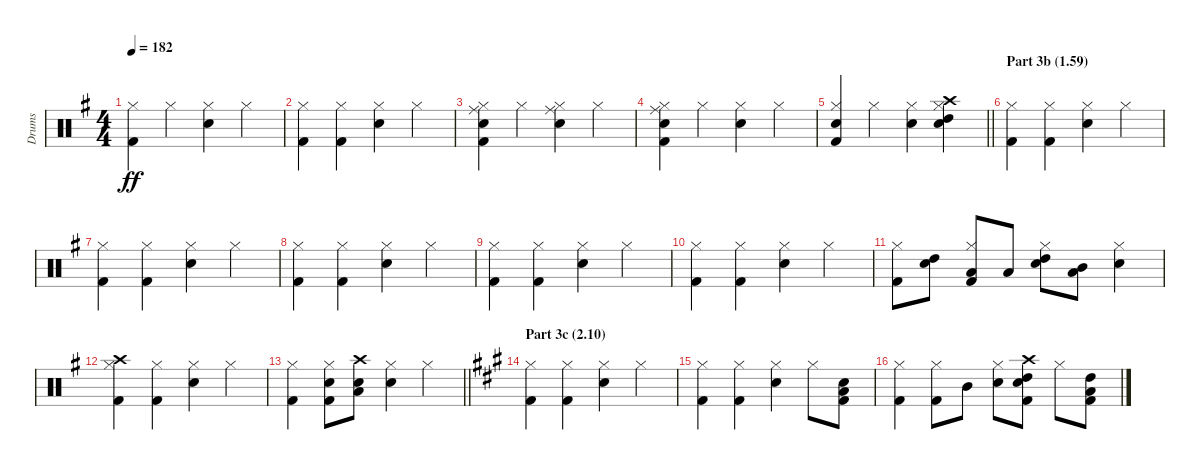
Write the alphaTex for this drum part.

\track ("Drums" "Drums") {instrument percussion}
\staff {score}
\articulation defaults
\ts (4 4)
\tempo 182
\clef neutral
\ks g
("Kick (hit) 2" "Hi-Hat (closed)").4{dy ff} "Hi-Hat (closed)".4 ("Electric Snare (hit)" "Hi-Hat (closed)").4 "Hi-Hat (closed)".4 |
("Kick (hit) 2" "Hi-Hat (closed)").4 ("Kick (hit) 2" "Hi-Hat (closed)").4 ("Electric Snare (hit)" "Hi-Hat (closed)").4 "Hi-Hat (closed)".4 |
("Ride (middle)" "Kick (hit) 2" "Electric Snare (hit)" "Hi-Hat (closed)").4 "Hi-Hat (closed)".4 ("Ride (middle)" "Electric Snare (hit)" "Hi-Hat (closed)").4 "Hi-Hat (closed)".4 |
("Ride (middle)" "Electric Snare (hit)" "Kick (hit) 2" "Hi-Hat (closed)").4 "Hi-Hat (closed)".4 ("Electric Snare (hit)" "Hi-Hat (closed)").4 "Hi-Hat (closed)".4 |
\barLineRight lightlight
("Electric Snare (hit)" "Kick (hit) 2" "Hi-Hat (closed)").4 "Hi-Hat (closed)".4 ("Electric Snare (hit)" "Hi-Hat (closed)").4 ("High Tom (hit)" "Hi-Hat (closed)" "Crash high (hit)" "Electric Snare (hit)").4 |
\section ("" "Part 3b (1.59)")
("Hi-Hat (closed)" "Kick (hit) 2").4 ("Hi-Hat (closed)" "Kick (hit) 2").4 ("Electric Snare (hit)" "Hi-Hat (closed)").4 "Hi-Hat (closed)".4 |
("Kick (hit) 2" "Hi-Hat (closed)").4 ("Kick (hit) 2" "Hi-Hat (closed)").4 ("Electric Snare (hit)" "Hi-Hat (closed)").4 "Hi-Hat (closed)".4 |
("Hi-Hat (closed)" "Kick (hit) 2").4 ("Hi-Hat (closed)" "Kick (hit) 2").4 ("Hi-Hat (closed)" "Electric Snare (hit)").4 "Hi-Hat (closed)".4 |
("Hi-Hat (closed)" "Kick (hit) 2").4 ("Hi-Hat (closed)" "Kick (hit) 2").4 ("Hi-Hat (closed)" "Electric Snare (hit)").4 "Hi-Hat (closed)".4 |
("Hi-Hat (closed)" "Kick (hit) 2").4 ("Hi-Hat (closed)" "Kick (hit) 2").4 ("Electric Snare (hit)" "Hi-Hat (closed)").4 "Hi-Hat (closed)".4 |
("Kick (hit) 2" "Hi-Hat (closed)").8 ("High Tom (hit)" "Electric Snare (hit)").8 ("Low Tom (hit)" "Kick (hit) 2" "Hi-Hat (closed)").8 "Low Tom (hit)".8 ("High Tom (hit)" "Electric Snare (hit)" "Hi-Hat (closed)").8 ("Mid Tom (hit)" "Low Tom (hit)").8 ("Electric Snare (hit)" "Hi-Hat (closed)").4 |
("Crash high (hit)" "Hi-Hat (closed)" "Kick (hit) 2").4 ("Hi-Hat (closed)" "Kick (hit) 2").4 ("Hi-Hat (closed)" "Electric Snare (hit)").4 "Hi-Hat (closed)".4 |
\barLineRight lightlight
("Hi-Hat (closed)" "Kick (hit) 2").4 ("Electric Snare (hit)" "Hi-Hat (closed)" "Kick (hit) 2").8 ("Low Tom (hit)" "Snare (hit) 2" "Crash high (hit)").8 ("Hi-Hat (closed)" "Electric Snare (hit)").4 "Hi-Hat (closed)".4 |
\section ("" "Part 3c (2.10)")
\ks a
("Hi-Hat (closed)" "Kick (hit) 2").4 ("Hi-Hat (closed)" "Kick (hit) 2").4 ("Electric Snare (hit)" "Hi-Hat (closed)").4 "Hi-Hat (closed)".4 |
("Kick (hit) 2" "Hi-Hat (closed)").4 ("Kick (hit) 2" "Hi-Hat (closed)").4 ("Electric Snare (hit)" "Hi-Hat (closed)").4 "Hi-Hat (closed)".8 ("Electric Snare (hit)" "Low Tom (hit)" "Kick (hit) 2").8 |
("Hi-Hat (closed)" "Kick (hit) 2").4 ("Hi-Hat (closed)" "Kick (hit) 2").8 "Mid Tom (hit)".8 ("Hi-Hat (closed)" "Electric Snare (hit)").8 ("Electric Snare (hit)" "Kick (hit) 2" "High Tom (hit)" "Crash high (hit)").8 "Hi-Hat (closed)".8 ("Kick (hit) 2" "Low Tom (hit)" "High Tom (hit)").8
